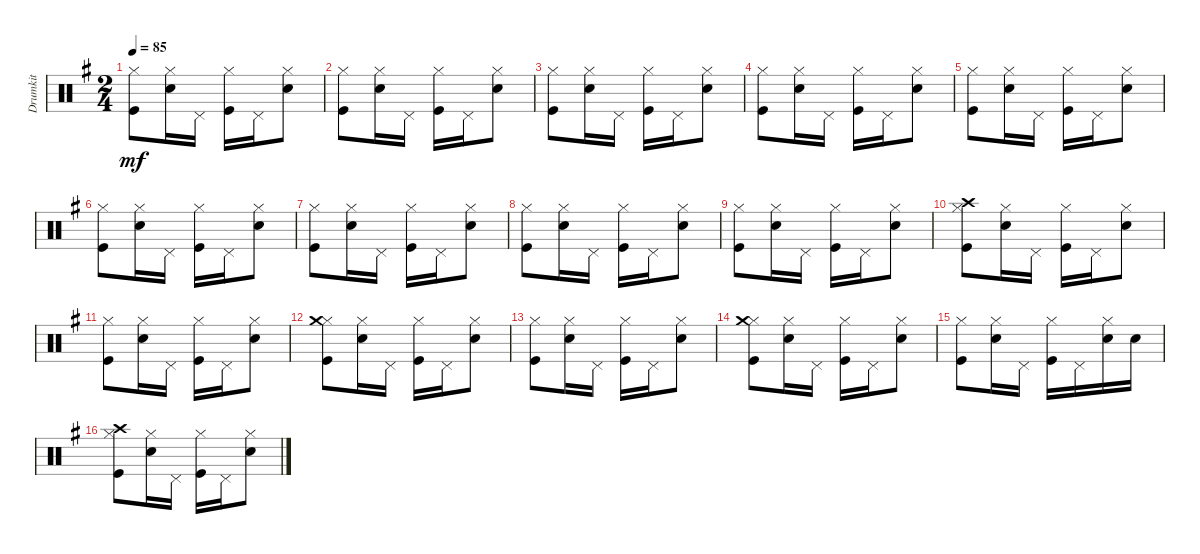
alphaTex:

\track ("Drumkit" "Drumkit") {instrument percussion}
\staff {score}
\articulation defaults
\ts (2 4)
\tempo 85
\clef neutral
\ks g
("Kick (hit)" "Hi-Hat (closed)").8{dy mf} ("Snare (hit) 2" "Hi-Hat (closed)").16 "Pedal Hi-Hat (hit)".16 ("Kick (hit)" "Hi-Hat (closed)").16 "Pedal Hi-Hat (hit)".16 ("Snare (hit) 2" "Hi-Hat (closed)").8 |
("Kick (hit)" "Hi-Hat (closed)").8 ("Snare (hit) 2" "Hi-Hat (closed)").16 "Pedal Hi-Hat (hit)".16 ("Kick (hit)" "Hi-Hat (closed)").16 "Pedal Hi-Hat (hit)".16 ("Snare (hit) 2" "Hi-Hat (closed)").8 |
("Kick (hit)" "Hi-Hat (closed)").8 ("Snare (hit) 2" "Hi-Hat (closed)").16 "Pedal Hi-Hat (hit)".16 ("Kick (hit)" "Hi-Hat (closed)").16 "Pedal Hi-Hat (hit)".16 ("Snare (hit) 2" "Hi-Hat (closed)").8 |
("Kick (hit)" "Hi-Hat (closed)").8 ("Snare (hit) 2" "Hi-Hat (closed)").16 "Pedal Hi-Hat (hit)".16 ("Kick (hit)" "Hi-Hat (closed)").16 "Pedal Hi-Hat (hit)".16 ("Snare (hit) 2" "Hi-Hat (closed)").8 |
("Kick (hit)" "Hi-Hat (closed)").8 ("Snare (hit) 2" "Hi-Hat (closed)").16 "Pedal Hi-Hat (hit)".16 ("Kick (hit)" "Hi-Hat (closed)").16 "Pedal Hi-Hat (hit)".16 ("Snare (hit) 2" "Hi-Hat (closed)").8 |
("Kick (hit)" "Hi-Hat (closed)").8 ("Snare (hit) 2" "Hi-Hat (closed)").16 "Pedal Hi-Hat (hit)".16 ("Kick (hit)" "Hi-Hat (closed)").16 "Pedal Hi-Hat (hit)".16 ("Snare (hit) 2" "Hi-Hat (closed)").8 |
("Kick (hit)" "Hi-Hat (closed)").8 ("Snare (hit) 2" "Hi-Hat (closed)").16 "Pedal Hi-Hat (hit)".16 ("Kick (hit)" "Hi-Hat (closed)").16 "Pedal Hi-Hat (hit)".16 ("Snare (hit) 2" "Hi-Hat (closed)").8 |
("Kick (hit)" "Hi-Hat (closed)").8 ("Snare (hit) 2" "Hi-Hat (closed)").16 "Pedal Hi-Hat (hit)".16 ("Kick (hit)" "Hi-Hat (closed)").16 "Pedal Hi-Hat (hit)".16 ("Snare (hit) 2" "Hi-Hat (closed)").8 |
("Kick (hit)" "Hi-Hat (closed)").8 ("Snare (hit) 2" "Hi-Hat (closed)").16 "Pedal Hi-Hat (hit)".16 ("Kick (hit)" "Hi-Hat (closed)").16 "Pedal Hi-Hat (hit)".16 ("Snare (hit) 2" "Hi-Hat (closed)").8 |
("Kick (hit)" "Hi-Hat (closed)" "Crash high (hit)").8 ("Snare (hit) 2" "Hi-Hat (closed)").16 "Pedal Hi-Hat (hit)".16 ("Kick (hit)" "Hi-Hat (closed)").16 "Pedal Hi-Hat (hit)".16 ("Snare (hit) 2" "Hi-Hat (closed)").8 |
("Kick (hit)" "Hi-Hat (closed)").8 ("Snare (hit) 2" "Hi-Hat (closed)").16 "Pedal Hi-Hat (hit)".16 ("Kick (hit)" "Hi-Hat (closed)").16 "Pedal Hi-Hat (hit)".16 ("Snare (hit) 2" "Hi-Hat (closed)").8 |
("Kick (hit)" "Hi-Hat (closed)" "Crash medium (hit)").8 ("Snare (hit) 2" "Hi-Hat (closed)").16 "Pedal Hi-Hat (hit)".16 ("Kick (hit)" "Hi-Hat (closed)").16 "Pedal Hi-Hat (hit)".16 ("Snare (hit) 2" "Hi-Hat (closed)").8 |
("Kick (hit)" "Hi-Hat (closed)").8 ("Snare (hit) 2" "Hi-Hat (closed)").16 "Pedal Hi-Hat (hit)".16 ("Kick (hit)" "Hi-Hat (closed)").16 "Pedal Hi-Hat (hit)".16 ("Snare (hit) 2" "Hi-Hat (closed)").8 |
("Kick (hit)" "Hi-Hat (closed)" "Crash medium (hit)").8 ("Snare (hit) 2" "Hi-Hat (closed)").16 "Pedal Hi-Hat (hit)".16 ("Kick (hit)" "Hi-Hat (closed)").16 "Pedal Hi-Hat (hit)".16 ("Snare (hit) 2" "Hi-Hat (closed)").8 |
("Kick (hit)" "Hi-Hat (closed)").8 ("Snare (hit) 2" "Hi-Hat (closed)").16 "Pedal Hi-Hat (hit)".16 ("Kick (hit)" "Hi-Hat (closed)").16 "Pedal Hi-Hat (hit)".16 ("Snare (hit) 2" "Hi-Hat (closed)").16 "Snare (hit) 2".16 |
("Kick (hit)" "Hi-Hat (closed)" "Crash high (hit)").8 ("Snare (hit) 2" "Hi-Hat (closed)").16 "Pedal Hi-Hat (hit)".16 ("Kick (hit)" "Hi-Hat (closed)").16 "Pedal Hi-Hat (hit)".16 ("Snare (hit) 2" "Hi-Hat (closed)").8
